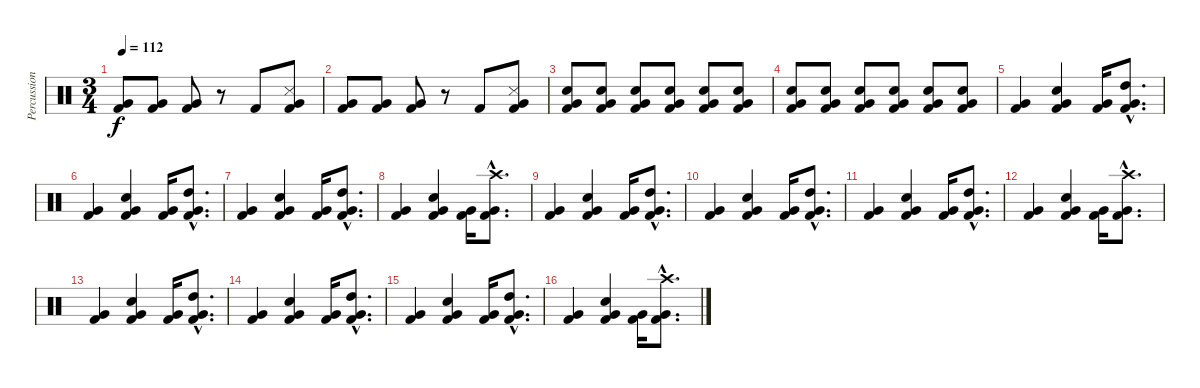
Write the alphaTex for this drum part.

\track ("Percussions" "Percussion") {instrument percussion}
\staff {score}
\articulation defaults
\ts (3 4)
\tempo 112
\clef neutral
\ks c
("Kick (hit) 2" "Very Low Tom (hit)").8{dy f} ("Kick (hit) 2" "Very Low Tom (hit)").8 ("Kick (hit) 2" "Very Low Tom (hit)").8 r.8 "Kick (hit) 2".8 ("Kick (hit) 2" "Very Low Tom (hit)" "Snare (side stick) 3").8 |
("Kick (hit) 2" "Very Low Tom (hit)").8 ("Kick (hit) 2" "Very Low Tom (hit)").8 ("Kick (hit) 2" "Very Low Tom (hit)").8 r.8 "Kick (hit) 2".8 ("Kick (hit) 2" "Very Low Tom (hit)" "Snare (side stick) 3").8 |
("Kick (hit) 2" "Very Low Tom (hit)" "Electric Snare (hit)").8 ("Kick (hit) 2" "Very Low Tom (hit)" "Electric Snare (hit)").8 ("Kick (hit) 2" "Very Low Tom (hit)" "Electric Snare (hit)").8 ("Kick (hit) 2" "Very Low Tom (hit)" "Electric Snare (hit)").8 ("Kick (hit) 2" "Very Low Tom (hit)" "Electric Snare (hit)").8 ("Kick (hit) 2" "Very Low Tom (hit)" "Electric Snare (hit)").8 |
("Kick (hit) 2" "Very Low Tom (hit)" "Electric Snare (hit)").8 ("Kick (hit) 2" "Very Low Tom (hit)" "Electric Snare (hit)").8 ("Kick (hit) 2" "Very Low Tom (hit)" "Electric Snare (hit)").8 ("Kick (hit) 2" "Very Low Tom (hit)" "Electric Snare (hit)").8 ("Kick (hit) 2" "Very Low Tom (hit)" "Electric Snare (hit)").8 ("Kick (hit) 2" "Very Low Tom (hit)" "Electric Snare (hit)").8 |
("Kick (hit) 2" "Very Low Tom (hit)").4 ("Kick (hit) 2" "Very Low Tom (hit)" "Electric Snare (hit)").4 ("Kick (hit) 2" "Very Low Tom (hit)").16 ("High Tom (hit)"{hac} "Kick (hit) 2"{hac} "Very Low Tom (hit)"{hac}).8{d} |
("Kick (hit) 2" "Very Low Tom (hit)").4 ("Kick (hit) 2" "Very Low Tom (hit)" "Electric Snare (hit)").4 ("Kick (hit) 2" "Very Low Tom (hit)").16 ("High Tom (hit)"{hac} "Kick (hit) 2"{hac} "Very Low Tom (hit)"{hac}).8{d} |
("Kick (hit) 2" "Very Low Tom (hit)").4 ("Kick (hit) 2" "Very Low Tom (hit)" "Electric Snare (hit)").4 ("Kick (hit) 2" "Very Low Tom (hit)").16 ("High Tom (hit)"{hac} "Kick (hit) 2"{hac} "Very Low Tom (hit)"{hac}).8{d} |
("Kick (hit) 2" "Very Low Tom (hit)").4 ("Kick (hit) 2" "Very Low Tom (hit)" "Electric Snare (hit)").4 ("Kick (hit) 2" "Very Low Tom (hit)").16 ("Crash high (hit)"{hac} "Kick (hit) 2"{hac} "Very Low Tom (hit)"{hac}).8{d} |
("Kick (hit) 2" "Very Low Tom (hit)").4 ("Kick (hit) 2" "Very Low Tom (hit)" "Electric Snare (hit)").4 ("Kick (hit) 2" "Very Low Tom (hit)").16 ("High Tom (hit)"{hac} "Kick (hit) 2"{hac} "Very Low Tom (hit)"{hac}).8{d} |
("Kick (hit) 2" "Very Low Tom (hit)").4 ("Kick (hit) 2" "Very Low Tom (hit)" "Electric Snare (hit)").4 ("Kick (hit) 2" "Very Low Tom (hit)").16 ("High Tom (hit)"{hac} "Kick (hit) 2"{hac} "Very Low Tom (hit)"{hac}).8{d} |
("Kick (hit) 2" "Very Low Tom (hit)").4 ("Kick (hit) 2" "Very Low Tom (hit)" "Electric Snare (hit)").4 ("Kick (hit) 2" "Very Low Tom (hit)").16 ("High Tom (hit)"{hac} "Kick (hit) 2"{hac} "Very Low Tom (hit)"{hac}).8{d} |
("Kick (hit) 2" "Very Low Tom (hit)").4 ("Kick (hit) 2" "Very Low Tom (hit)" "Electric Snare (hit)").4 ("Kick (hit) 2" "Very Low Tom (hit)").16 ("Crash high (hit)"{hac} "Kick (hit) 2"{hac} "Very Low Tom (hit)"{hac}).8{d} |
("Kick (hit) 2" "Very Low Tom (hit)").4 ("Kick (hit) 2" "Very Low Tom (hit)" "Electric Snare (hit)").4 ("Kick (hit) 2" "Very Low Tom (hit)").16 ("High Tom (hit)"{hac} "Kick (hit) 2"{hac} "Very Low Tom (hit)"{hac}).8{d} |
("Kick (hit) 2" "Very Low Tom (hit)").4 ("Kick (hit) 2" "Very Low Tom (hit)" "Electric Snare (hit)").4 ("Kick (hit) 2" "Very Low Tom (hit)").16 ("High Tom (hit)"{hac} "Kick (hit) 2"{hac} "Very Low Tom (hit)"{hac}).8{d} |
("Kick (hit) 2" "Very Low Tom (hit)").4 ("Kick (hit) 2" "Very Low Tom (hit)" "Electric Snare (hit)").4 ("Kick (hit) 2" "Very Low Tom (hit)").16 ("High Tom (hit)"{hac} "Kick (hit) 2"{hac} "Very Low Tom (hit)"{hac}).8{d} |
("Kick (hit) 2" "Very Low Tom (hit)").4 ("Kick (hit) 2" "Very Low Tom (hit)" "Electric Snare (hit)").4 ("Kick (hit) 2" "Very Low Tom (hit)").16 ("Crash high (hit)"{hac} "Kick (hit) 2"{hac} "Very Low Tom (hit)"{hac}).8{d}
